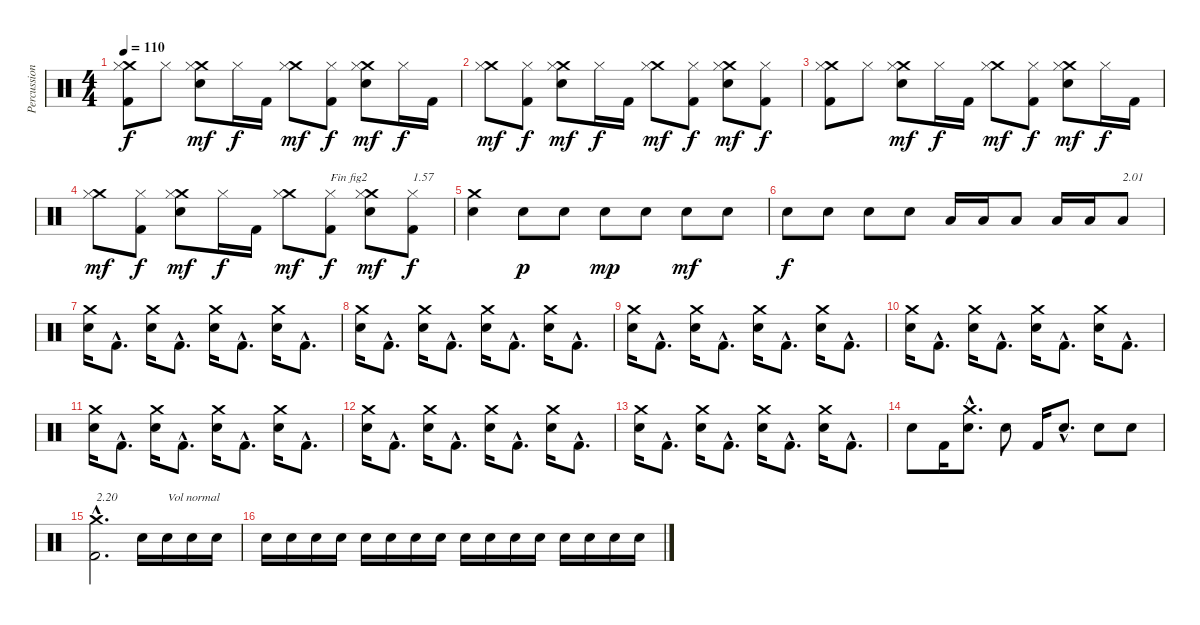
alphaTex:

\track ("Percussions" "Percussion") {instrument percussion}
\staff {score}
\articulation defaults
\ts (4 4)
\tempo 110
\clef neutral
\ks c
("Kick (hit) 2" "Crash medium (hit)" "Hi-Hat (closed)").8{dy f} "Hi-Hat (closed)".8 ("Electric Snare (hit)" "Crash medium (hit)" "Hi-Hat (closed)").8{dy mf} "Hi-Hat (closed)".16{dy f} "Kick (hit) 2".16 ("Crash medium (hit)" "Hi-Hat (closed)").8{dy mf} ("Kick (hit) 2" "Hi-Hat (closed)").8{dy f} ("Electric Snare (hit)" "Crash medium (hit)" "Hi-Hat (closed)").8{dy mf} "Hi-Hat (closed)".16{dy f} "Kick (hit) 2".16 |
("Crash medium (hit)" "Hi-Hat (closed)").8{dy mf} ("Kick (hit) 2" "Hi-Hat (closed)").8{dy f} ("Electric Snare (hit)" "Crash medium (hit)" "Hi-Hat (closed)").8{dy mf} "Hi-Hat (closed)".16{dy f} "Kick (hit) 2".16 ("Crash medium (hit)" "Hi-Hat (closed)").8{dy mf} ("Kick (hit) 2" "Hi-Hat (closed)").8{dy f} ("Electric Snare (hit)" "Crash medium (hit)" "Hi-Hat (closed)").8{dy mf} ("Kick (hit) 2" "Hi-Hat (closed)").8{dy f} |
("Kick (hit) 2" "Crash medium (hit)" "Hi-Hat (closed)").8 "Hi-Hat (closed)".8 ("Electric Snare (hit)" "Crash medium (hit)" "Hi-Hat (closed)").8{dy mf} "Hi-Hat (closed)".16{dy f} "Kick (hit) 2".16 ("Crash medium (hit)" "Hi-Hat (closed)").8{dy mf} ("Kick (hit) 2" "Hi-Hat (closed)").8{dy f} ("Electric Snare (hit)" "Crash medium (hit)" "Hi-Hat (closed)").8{dy mf} "Hi-Hat (closed)".16{dy f} "Kick (hit) 2".16 |
("Crash medium (hit)" "Hi-Hat (closed)").8{dy mf} ("Kick (hit) 2" "Hi-Hat (closed)").8{dy f} ("Electric Snare (hit)" "Crash medium (hit)" "Hi-Hat (closed)").8{dy mf} "Hi-Hat (closed)".16{dy f} "Kick (hit) 2".16 ("Crash medium (hit)" "Hi-Hat (closed)").8{dy mf} ("Kick (hit) 2" "Hi-Hat (closed)").8{txt "Fin fig2" dy f} ("Electric Snare (hit)" "Crash medium (hit)" "Hi-Hat (closed)").8{dy mf} ("Kick (hit) 2" "Hi-Hat (closed)").8{txt "1.57" dy f} |
("Electric Snare (hit)" "Crash medium (hit)").4 "Electric Snare (hit)".8{dy p} "Electric Snare (hit)".8 "Electric Snare (hit)".8{dy mp} "Electric Snare (hit)".8 "Electric Snare (hit)".8{dy mf} "Electric Snare (hit)".8 |
"Electric Snare (hit)".8{dy f} "Electric Snare (hit)".8 "Electric Snare (hit)".8 "Electric Snare (hit)".8 "Low Tom (hit)".16 "Low Floor Tom (hit)".16 "Low Floor Tom (hit)".8 "Low Tom (hit)".16 "Low Floor Tom (hit)".16 "Low Floor Tom (hit)".8{txt "2.01"} |
("Electric Snare (hit)" "Crash medium (hit)").16 "Kick (hit) 2"{hac}.8{d} ("Electric Snare (hit)" "Crash medium (hit)").16 "Kick (hit) 2"{hac}.8{d} ("Electric Snare (hit)" "Crash medium (hit)").16 "Kick (hit) 2"{hac}.8{d} ("Electric Snare (hit)" "Crash medium (hit)").16 "Kick (hit) 2"{hac}.8{d} |
("Electric Snare (hit)" "Crash medium (hit)").16 "Kick (hit) 2"{hac}.8{d} ("Electric Snare (hit)" "Crash medium (hit)").16 "Kick (hit) 2"{hac}.8{d} ("Electric Snare (hit)" "Crash medium (hit)").16 "Kick (hit) 2"{hac}.8{d} ("Electric Snare (hit)" "Crash medium (hit)").16 "Kick (hit) 2"{hac}.8{d} |
("Electric Snare (hit)" "Crash medium (hit)").16 "Kick (hit) 2"{hac}.8{d} ("Electric Snare (hit)" "Crash medium (hit)").16 "Kick (hit) 2"{hac}.8{d} ("Electric Snare (hit)" "Crash medium (hit)").16 "Kick (hit) 2"{hac}.8{d} ("Electric Snare (hit)" "Crash medium (hit)").16 "Kick (hit) 2"{hac}.8{d} |
("Electric Snare (hit)" "Crash medium (hit)").16 "Kick (hit) 2"{hac}.8{d} ("Electric Snare (hit)" "Crash medium (hit)").16 "Kick (hit) 2"{hac}.8{d} ("Electric Snare (hit)" "Crash medium (hit)").16 "Kick (hit) 2"{hac}.8{d} ("Electric Snare (hit)" "Crash medium (hit)").16 "Kick (hit) 2"{hac}.8{d} |
("Electric Snare (hit)" "Crash medium (hit)").16 "Kick (hit) 2"{hac}.8{d} ("Electric Snare (hit)" "Crash medium (hit)").16 "Kick (hit) 2"{hac}.8{d} ("Electric Snare (hit)" "Crash medium (hit)").16 "Kick (hit) 2"{hac}.8{d} ("Electric Snare (hit)" "Crash medium (hit)").16 "Kick (hit) 2"{hac}.8{d} |
("Electric Snare (hit)" "Crash medium (hit)").16 "Kick (hit) 2"{hac}.8{d} ("Electric Snare (hit)" "Crash medium (hit)").16 "Kick (hit) 2"{hac}.8{d} ("Electric Snare (hit)" "Crash medium (hit)").16 "Kick (hit) 2"{hac}.8{d} ("Electric Snare (hit)" "Crash medium (hit)").16 "Kick (hit) 2"{hac}.8{d} |
("Electric Snare (hit)" "Crash medium (hit)").16 "Kick (hit) 2"{hac}.8{d} ("Electric Snare (hit)" "Crash medium (hit)").16 "Kick (hit) 2"{hac}.8{d} ("Electric Snare (hit)" "Crash medium (hit)").16 "Kick (hit) 2"{hac}.8{d} ("Electric Snare (hit)" "Crash medium (hit)").16 "Kick (hit) 2"{hac}.8{d} |
"Electric Snare (hit)".8 "Kick (hit) 2".16 ("Electric Snare (hit)"{hac} "Crash medium (hit)"{hac}).8{d} "Electric Snare (hit)".8 "Kick (hit) 2".16 "Electric Snare (hit)"{hac}.8{d} "Electric Snare (hit)".8 "Electric Snare (hit)".8 |
("Kick (hit) 2"{hac} "Crash medium (hit)"{hac}).2{d txt "2.20"} "Electric Snare (hit)".16{volume 6} "Electric Snare (hit)".16{txt "Vol normal" volume 13} "Electric Snare (hit)".16 "Electric Snare (hit)".16 |
"Electric Snare (hit)".16 "Electric Snare (hit)".16 "Electric Snare (hit)".16 "Electric Snare (hit)".16 "Electric Snare (hit)".16 "Electric Snare (hit)".16 "Electric Snare (hit)".16 "Electric Snare (hit)".16 "Electric Snare (hit)".16 "Electric Snare (hit)".16 "Electric Snare (hit)".16 "Electric Snare (hit)".16 "Electric Snare (hit)".16 "Electric Snare (hit)".16 "Electric Snare (hit)".16 "Electric Snare (hit)".16
